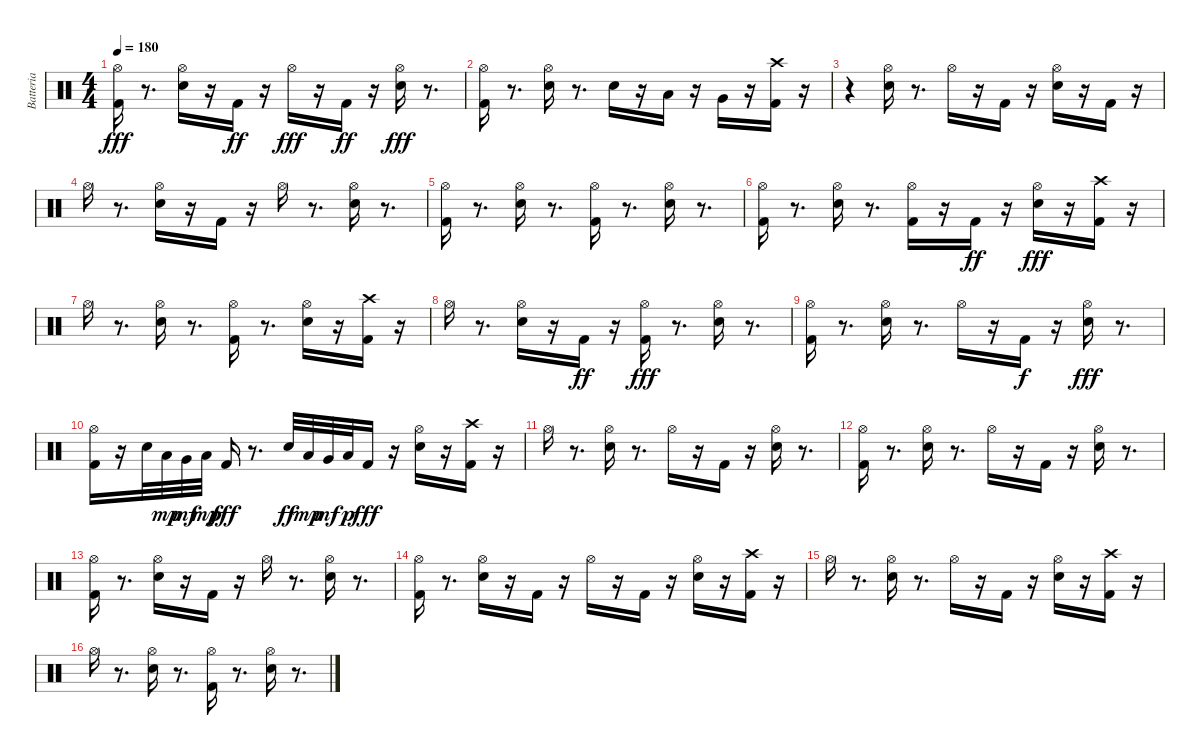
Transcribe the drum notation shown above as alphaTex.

\track ("Batteria" "Batteria") {instrument percussion}
\staff {score}
\articulation defaults
\ts (4 4)
\tempo 180
\clef neutral
\ks c
("Hi-Hat (open)" "Kick (hit) 2").16{dy fff} r.8{d} ("Electric Snare (hit)" "Hi-Hat (open)").16 r.16 "Kick (hit) 2".16{dy ff} r.16 "Hi-Hat (open)".16{dy fff} r.16 "Kick (hit) 2".16{dy ff} r.16 ("Hi-Hat (open)" "Electric Snare (hit)").16{dy fff} r.8{d} |
("Kick (hit) 2" "Hi-Hat (open)").16 r.8{d} ("Hi-Hat (open)" "Electric Snare (hit)").16 r.8{d} "Electric Snare (hit)".16 r.16 "Low Tom (hit)".16 r.16 "Very Low Tom (hit)".16 r.16 ("Crash high (hit)" "Kick (hit) 2").16 r.16 |
r.4 ("Hi-Hat (open)" "Electric Snare (hit)").16 r.8{d} "Hi-Hat (open)".16 r.16 "Kick (hit) 2".16 r.16 ("Electric Snare (hit)" "Hi-Hat (open)").16 r.16 "Kick (hit) 2".16 r.16 |
"Hi-Hat (open)".16 r.8{d} ("Electric Snare (hit)" "Hi-Hat (open)").16 r.16 "Kick (hit) 2".16 r.16 "Hi-Hat (open)".16 r.8{d} ("Electric Snare (hit)" "Hi-Hat (open)").16 r.8{d} |
("Hi-Hat (open)" "Kick (hit) 2").16 r.8{d} ("Electric Snare (hit)" "Hi-Hat (open)").16 r.8{d} ("Hi-Hat (open)" "Kick (hit) 2").16 r.8{d} ("Hi-Hat (open)" "Electric Snare (hit)").16 r.8{d} |
("Kick (hit) 2" "Hi-Hat (open)").16 r.8{d} ("Hi-Hat (open)" "Electric Snare (hit)").16 r.8{d} ("Hi-Hat (open)" "Kick (hit) 2").16 r.16 "Kick (hit) 2".16{dy ff} r.16 ("Hi-Hat (open)" "Electric Snare (hit)").16{dy fff} r.16 ("Crash high (hit)" "Kick (hit) 2").16 r.16 |
"Hi-Hat (open)".16 r.8{d} ("Hi-Hat (open)" "Electric Snare (hit)").16 r.8{d} ("Hi-Hat (open)" "Kick (hit) 2").16 r.8{d} ("Hi-Hat (open)" "Electric Snare (hit)").16 r.16 ("Crash high (hit)" "Kick (hit) 2").16 r.16 |
"Hi-Hat (open)".16 r.8{d} ("Hi-Hat (open)" "Electric Snare (hit)").16 r.16 "Kick (hit) 2".16{dy ff} r.16 ("Kick (hit) 2" "Hi-Hat (open)").16{dy fff} r.8{d} ("Electric Snare (hit)" "Hi-Hat (open)").16 r.8{d} |
("Hi-Hat (open)" "Kick (hit) 2").16 r.8{d} ("Electric Snare (hit)" "Hi-Hat (open)").16 r.8{d} "Hi-Hat (open)".16 r.16 "Kick (hit) 2".16{dy f} r.16 ("Hi-Hat (open)" "Electric Snare (hit)").16{dy fff} r.8{d} |
("Kick (hit) 2" "Hi-Hat (open)").16 r.16 "Electric Snare (hit)".32 "Low Tom (hit)".32{dy mp} "Very Low Tom (hit)".32{dy mf} "Low Floor Tom (hit)".32{dy mp} "Kick (hit) 2".16{dy fff} r.8{d} "Electric Snare (hit)".32{dy ff} "Low Tom (hit)".32{dy mp} "Very Low Tom (hit)".32{dy mf} "Low Floor Tom (hit)".32{dy p} "Kick (hit) 2".16{dy fff} r.16 ("Electric Snare (hit)" "Hi-Hat (open)").16 r.16 ("Crash high (hit)" "Kick (hit) 2").16 r.16 |
"Hi-Hat (open)".16 r.8{d} ("Electric Snare (hit)" "Hi-Hat (open)").16 r.8{d} "Hi-Hat (open)".16 r.16 "Kick (hit) 2".16 r.16 ("Hi-Hat (open)" "Electric Snare (hit)").16 r.8{d} |
("Kick (hit) 2" "Hi-Hat (open)").16 r.8{d} ("Hi-Hat (open)" "Electric Snare (hit)").16 r.8{d} "Hi-Hat (open)".16 r.16 "Kick (hit) 2".16 r.16 ("Electric Snare (hit)" "Hi-Hat (open)").16 r.8{d} |
("Hi-Hat (open)" "Kick (hit) 2").16 r.8{d} ("Electric Snare (hit)" "Hi-Hat (open)").16 r.16 "Kick (hit) 2".16 r.16 "Hi-Hat (open)".16 r.8{d} ("Hi-Hat (open)" "Electric Snare (hit)").16 r.8{d} |
("Kick (hit) 2" "Hi-Hat (open)").16 r.8{d} ("Hi-Hat (open)" "Electric Snare (hit)").16 r.16 "Kick (hit) 2".16 r.16 "Hi-Hat (open)".16 r.16 "Kick (hit) 2".16 r.16 ("Electric Snare (hit)" "Hi-Hat (open)").16 r.16 ("Crash high (hit)" "Kick (hit) 2").16 r.16 |
"Hi-Hat (open)".16 r.8{d} ("Electric Snare (hit)" "Hi-Hat (open)").16 r.8{d} "Hi-Hat (open)".16 r.16 "Kick (hit) 2".16 r.16 ("Hi-Hat (open)" "Electric Snare (hit)").16 r.16 ("Crash high (hit)" "Kick (hit) 2").16 r.16 |
"Hi-Hat (open)".16 r.8{d} ("Hi-Hat (open)" "Electric Snare (hit)").16 r.8{d} ("Kick (hit) 2" "Hi-Hat (open)").16 r.8{d} ("Electric Snare (hit)" "Hi-Hat (open)").16 r.8{d}
